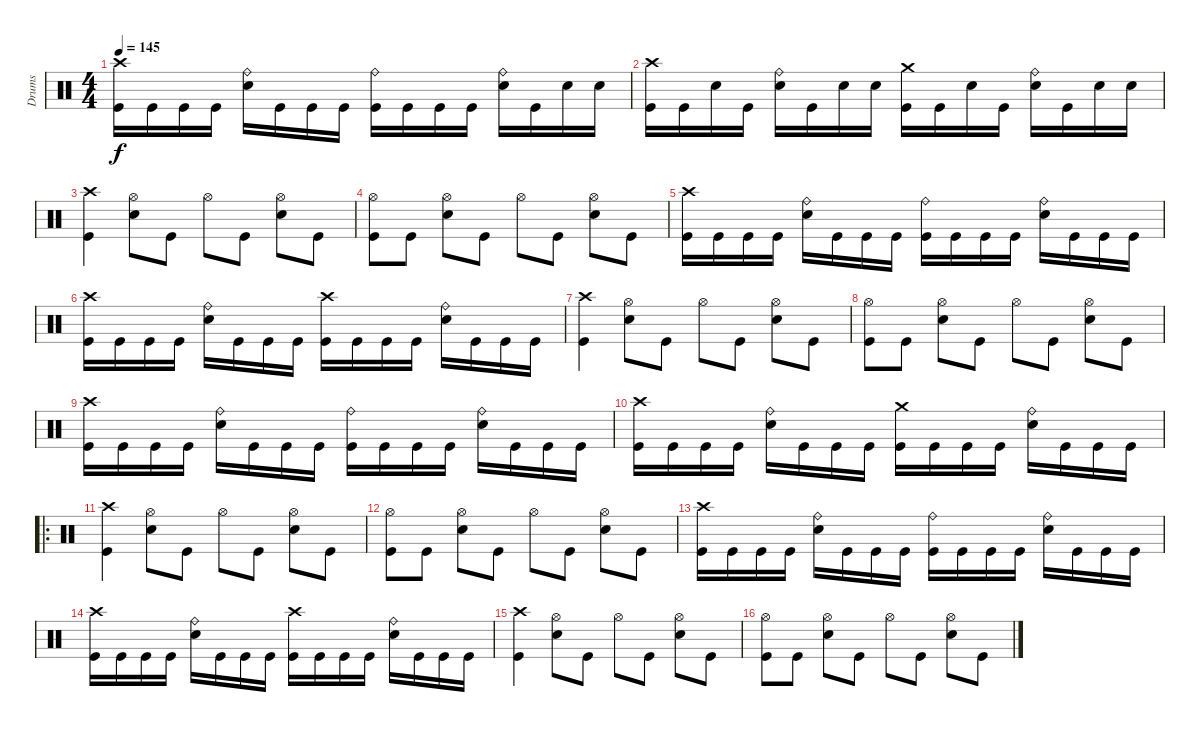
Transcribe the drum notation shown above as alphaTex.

\track ("Drums" "Drums") {instrument percussion}
\staff {score}
\articulation defaults
\ts (4 4)
\tempo 145
\clef neutral
\ks c
("Crash high (hit)" "Kick (hit)").16{dy f} "Kick (hit)".16 "Kick (hit)".16 "Kick (hit)".16 ("Ride (bell)" "Electric Snare (hit)").16 "Kick (hit)".16 "Kick (hit)".16 "Kick (hit)".16 ("Ride (bell)" "Kick (hit)").16 "Kick (hit)".16 "Kick (hit)".16 "Kick (hit)".16 ("Ride (bell)" "Electric Snare (hit)").16 "Kick (hit)".16 "Electric Snare (hit)".16 "Electric Snare (hit)".16 |
("Crash high (hit)" "Kick (hit)").16 "Kick (hit)".16 "Electric Snare (hit)".16 "Kick (hit)".16 ("Ride (bell)" "Electric Snare (hit)").16 "Kick (hit)".16 "Electric Snare (hit)".16 "Electric Snare (hit)".16 ("Crash medium (hit)" "Kick (hit)").16 "Kick (hit)".16 "Electric Snare (hit)".16 "Kick (hit)".16 ("Ride (bell)" "Electric Snare (hit)").16 "Kick (hit)".16 "Electric Snare (hit)".16 "Electric Snare (hit)".16 |
("Crash high (hit)" "Kick (hit)").4 ("Hi-Hat (open)" "Electric Snare (hit)").8 "Kick (hit)".8 "Hi-Hat (open)".8 "Kick (hit)".8 ("Hi-Hat (open)" "Electric Snare (hit)").8 "Kick (hit)".8 |
("Hi-Hat (open)" "Kick (hit)").8 "Kick (hit)".8 ("Hi-Hat (open)" "Electric Snare (hit)").8 "Kick (hit)".8 "Hi-Hat (open)".8 "Kick (hit)".8 ("Hi-Hat (open)" "Electric Snare (hit)").8 "Kick (hit)".8 |
("Crash high (hit)" "Kick (hit)").16 "Kick (hit)".16 "Kick (hit)".16 "Kick (hit)".16 ("Ride (bell)" "Electric Snare (hit)").16 "Kick (hit)".16 "Kick (hit)".16 "Kick (hit)".16 ("Ride (bell)" "Kick (hit)").16 "Kick (hit)".16 "Kick (hit)".16 "Kick (hit)".16 ("Ride (bell)" "Electric Snare (hit)").16 "Kick (hit)".16 "Kick (hit)".16 "Kick (hit)".16 |
("Crash high (hit)" "Kick (hit)").16 "Kick (hit)".16 "Kick (hit)".16 "Kick (hit)".16 ("Ride (bell)" "Electric Snare (hit)").16 "Kick (hit)".16 "Kick (hit)".16 "Kick (hit)".16 ("Crash high (hit)" "Kick (hit)").16 "Kick (hit)".16 "Kick (hit)".16 "Kick (hit)".16 ("Ride (bell)" "Electric Snare (hit)").16 "Kick (hit)".16 "Kick (hit)".16 "Kick (hit)".16 |
("Crash high (hit)" "Kick (hit)").4 ("Hi-Hat (open)" "Electric Snare (hit)").8 "Kick (hit)".8 "Hi-Hat (open)".8 "Kick (hit)".8 ("Hi-Hat (open)" "Electric Snare (hit)").8 "Kick (hit)".8 |
("Hi-Hat (open)" "Kick (hit)").8 "Kick (hit)".8 ("Hi-Hat (open)" "Electric Snare (hit)").8 "Kick (hit)".8 "Hi-Hat (open)".8 "Kick (hit)".8 ("Hi-Hat (open)" "Electric Snare (hit)").8 "Kick (hit)".8 |
("Crash high (hit)" "Kick (hit)").16 "Kick (hit)".16 "Kick (hit)".16 "Kick (hit)".16 ("Ride (bell)" "Electric Snare (hit)").16 "Kick (hit)".16 "Kick (hit)".16 "Kick (hit)".16 ("Ride (bell)" "Kick (hit)").16 "Kick (hit)".16 "Kick (hit)".16 "Kick (hit)".16 ("Ride (bell)" "Electric Snare (hit)").16 "Kick (hit)".16 "Kick (hit)".16 "Kick (hit)".16 |
("Crash high (hit)" "Kick (hit)").16 "Kick (hit)".16 "Kick (hit)".16 "Kick (hit)".16 ("Ride (bell)" "Electric Snare (hit)").16 "Kick (hit)".16 "Kick (hit)".16 "Kick (hit)".16 ("Crash medium (hit)" "Kick (hit)").16 "Kick (hit)".16 "Kick (hit)".16 "Kick (hit)".16 ("Ride (bell)" "Electric Snare (hit)").16 "Kick (hit)".16 "Kick (hit)".16 "Kick (hit)".16 |
\ro
("Crash high (hit)" "Kick (hit)").4 ("Hi-Hat (open)" "Electric Snare (hit)").8 "Kick (hit)".8 "Hi-Hat (open)".8 "Kick (hit)".8 ("Hi-Hat (open)" "Electric Snare (hit)").8 "Kick (hit)".8 |
("Hi-Hat (open)" "Kick (hit)").8 "Kick (hit)".8 ("Hi-Hat (open)" "Electric Snare (hit)").8 "Kick (hit)".8 "Hi-Hat (open)".8 "Kick (hit)".8 ("Hi-Hat (open)" "Electric Snare (hit)").8 "Kick (hit)".8 |
("Crash high (hit)" "Kick (hit)").16 "Kick (hit)".16 "Kick (hit)".16 "Kick (hit)".16 ("Ride (bell)" "Electric Snare (hit)").16 "Kick (hit)".16 "Kick (hit)".16 "Kick (hit)".16 ("Ride (bell)" "Kick (hit)").16 "Kick (hit)".16 "Kick (hit)".16 "Kick (hit)".16 ("Ride (bell)" "Electric Snare (hit)").16 "Kick (hit)".16 "Kick (hit)".16 "Kick (hit)".16 |
("Crash high (hit)" "Kick (hit)").16 "Kick (hit)".16 "Kick (hit)".16 "Kick (hit)".16 ("Ride (bell)" "Electric Snare (hit)").16 "Kick (hit)".16 "Kick (hit)".16 "Kick (hit)".16 ("Crash high (hit)" "Kick (hit)").16 "Kick (hit)".16 "Kick (hit)".16 "Kick (hit)".16 ("Ride (bell)" "Electric Snare (hit)").16 "Kick (hit)".16 "Kick (hit)".16 "Kick (hit)".16 |
("Crash high (hit)" "Kick (hit)").4 ("Hi-Hat (open)" "Electric Snare (hit)").8 "Kick (hit)".8 "Hi-Hat (open)".8 "Kick (hit)".8 ("Hi-Hat (open)" "Electric Snare (hit)").8 "Kick (hit)".8 |
("Hi-Hat (open)" "Kick (hit)").8 "Kick (hit)".8 ("Hi-Hat (open)" "Electric Snare (hit)").8 "Kick (hit)".8 "Hi-Hat (open)".8 "Kick (hit)".8 ("Hi-Hat (open)" "Electric Snare (hit)").8 "Kick (hit)".8
